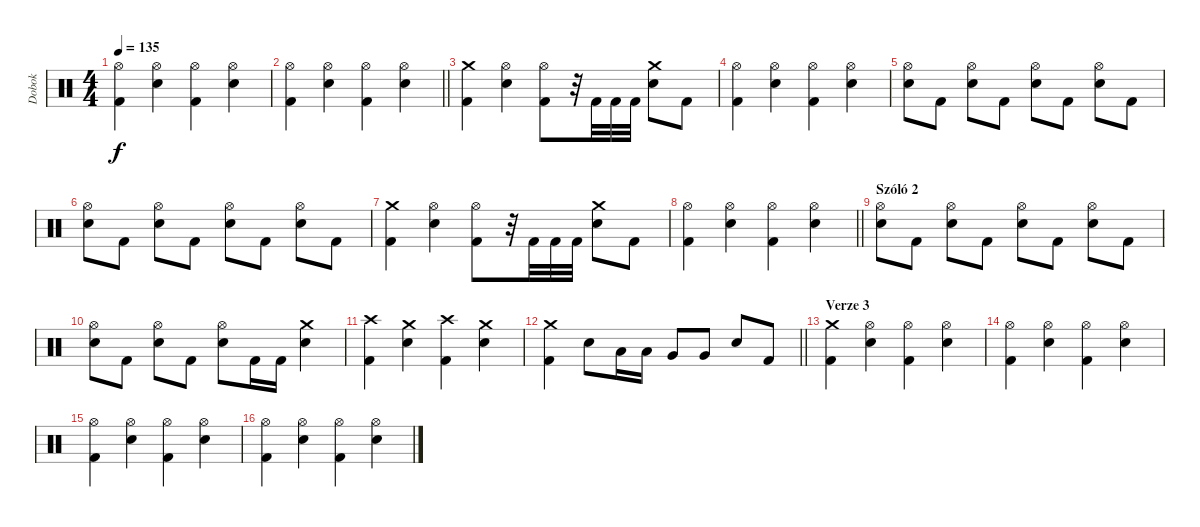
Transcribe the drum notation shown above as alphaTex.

\track ("Dobok" "Dobok") {instrument percussion}
\staff {score}
\articulation defaults
\ts (4 4)
\tempo 135
\clef neutral
\ks c
("Hi-Hat (open)" "Kick (hit) 2").4{dy f} ("Hi-Hat (open)" "Electric Snare (hit)").4 ("Hi-Hat (open)" "Kick (hit) 2").4 ("Hi-Hat (open)" "Electric Snare (hit)").4 |
\barLineRight lightlight
("Hi-Hat (open)" "Kick (hit) 2").4 ("Hi-Hat (open)" "Electric Snare (hit)").4 ("Hi-Hat (open)" "Kick (hit) 2").4 ("Hi-Hat (open)" "Electric Snare (hit)").4 |
("Crash medium (hit)" "Kick (hit) 2").4 ("Hi-Hat (open)" "Electric Snare (hit)").4 ("Hi-Hat (open)" "Kick (hit) 2").8 r.32 "Kick (hit) 2".32 "Kick (hit) 2".32 "Kick (hit) 2".32 ("Crash medium (hit)" "Electric Snare (hit)").8 "Kick (hit) 2".8 |
("Hi-Hat (open)" "Kick (hit) 2").4 ("Hi-Hat (open)" "Electric Snare (hit)").4 ("Hi-Hat (open)" "Kick (hit) 2").4 ("Hi-Hat (open)" "Electric Snare (hit)").4 |
("Hi-Hat (open)" "Electric Snare (hit)").8 "Kick (hit) 2".8 ("Hi-Hat (open)" "Electric Snare (hit)").8 "Kick (hit) 2".8 ("Hi-Hat (open)" "Electric Snare (hit)").8 "Kick (hit) 2".8 ("Hi-Hat (open)" "Electric Snare (hit)").8 "Kick (hit) 2".8 |
("Hi-Hat (open)" "Electric Snare (hit)").8 "Kick (hit) 2".8 ("Hi-Hat (open)" "Electric Snare (hit)").8 "Kick (hit) 2".8 ("Hi-Hat (open)" "Electric Snare (hit)").8 "Kick (hit) 2".8 ("Hi-Hat (open)" "Electric Snare (hit)").8 "Kick (hit) 2".8 |
("Crash medium (hit)" "Kick (hit) 2").4 ("Hi-Hat (open)" "Electric Snare (hit)").4 ("Hi-Hat (open)" "Kick (hit) 2").8 r.32 "Kick (hit) 2".32 "Kick (hit) 2".32 "Kick (hit) 2".32 ("Crash medium (hit)" "Electric Snare (hit)").8 "Kick (hit) 2".8 |
\barLineRight lightlight
("Hi-Hat (open)" "Kick (hit) 2").4 ("Hi-Hat (open)" "Electric Snare (hit)").4 ("Hi-Hat (open)" "Kick (hit) 2").4 ("Hi-Hat (open)" "Electric Snare (hit)").4 |
\section ("" "Szóló 2")
("Hi-Hat (open)" "Electric Snare (hit)").8 "Kick (hit) 2".8 ("Hi-Hat (open)" "Electric Snare (hit)").8 "Kick (hit) 2".8 ("Hi-Hat (open)" "Electric Snare (hit)").8 "Kick (hit) 2".8 ("Hi-Hat (open)" "Electric Snare (hit)").8 "Kick (hit) 2".8 |
("Hi-Hat (open)" "Electric Snare (hit)").8 "Kick (hit) 2".8 ("Hi-Hat (open)" "Electric Snare (hit)").8 "Kick (hit) 2".8 ("Hi-Hat (open)" "Electric Snare (hit)").8 "Kick (hit) 2".16 "Kick (hit) 2".16 ("Crash medium (hit)" "Electric Snare (hit)").4 |
("Crash high (hit)" "Kick (hit) 2").4 ("Crash medium (hit)" "Electric Snare (hit)").4 ("Crash high (hit)" "Kick (hit) 2").4 ("Crash medium (hit)" "Electric Snare (hit)").4 |
\barLineRight lightlight
("Crash medium (hit)" "Kick (hit) 2").4 "Electric Snare (hit)".8 "Low Tom (hit)".16 "Low Tom (hit)".16 "Very Low Tom (hit)".8 "Very Low Tom (hit)".8 "Electric Snare (hit)".8 "Kick (hit) 2".8 |
\section ("" "Verze 3")
("Crash medium (hit)" "Kick (hit) 2").4 ("Hi-Hat (open)" "Electric Snare (hit)").4 ("Hi-Hat (open)" "Kick (hit) 2").4 ("Hi-Hat (open)" "Electric Snare (hit)").4 |
("Hi-Hat (open)" "Kick (hit) 2").4 ("Hi-Hat (open)" "Electric Snare (hit)").4 ("Hi-Hat (open)" "Kick (hit) 2").4 ("Hi-Hat (open)" "Electric Snare (hit)").4 |
("Hi-Hat (open)" "Kick (hit) 2").4 ("Hi-Hat (open)" "Electric Snare (hit)").4 ("Hi-Hat (open)" "Kick (hit) 2").4 ("Hi-Hat (open)" "Electric Snare (hit)").4 |
("Hi-Hat (open)" "Kick (hit) 2").4 ("Hi-Hat (open)" "Electric Snare (hit)").4 ("Hi-Hat (open)" "Kick (hit) 2").4 ("Hi-Hat (open)" "Electric Snare (hit)").4
